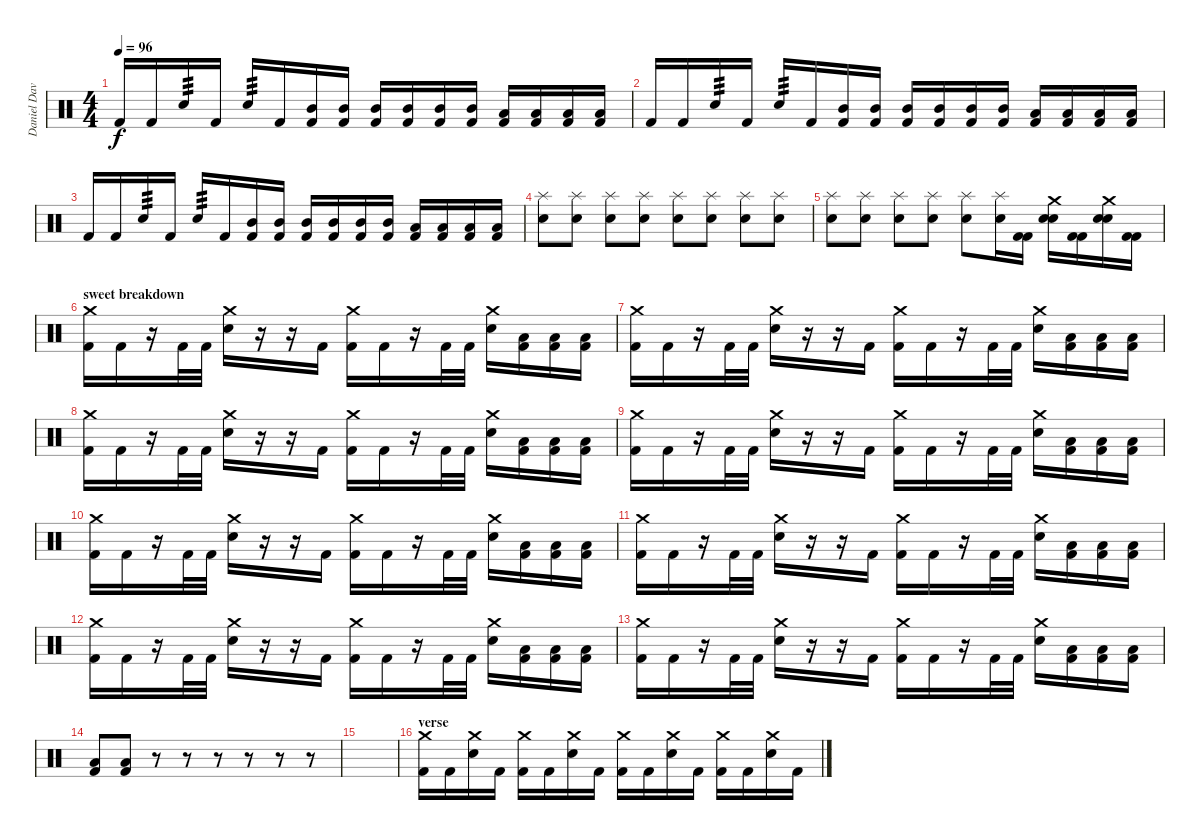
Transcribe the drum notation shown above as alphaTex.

\track ("Daniel Davison" "Daniel Dav") {instrument percussion}
\staff {score}
\articulation defaults
\ts (4 4)
\tempo 96
\clef neutral
\ks c "Kick (hit) 2".16{dy f} "Kick (hit) 2".16 "Electric Snare (hit)".16{tp 3} "Kick (hit) 2".16 "Electric Snare (hit)".16{tp 3} "Kick (hit) 2".16
("Mid Tom (hit)" "Kick (hit) 2").16 ("Mid Tom (hit)" "Kick (hit) 2").16 ("Mid Tom (hit)" "Kick (hit) 2").16 ("Mid Tom (hit)" "Kick (hit) 2").16 ("Mid Tom (hit)" "Kick (hit) 2").16 ("Mid Tom (hit)" "Kick (hit) 2").16 ("Low Tom (hit)" "Kick (hit) 2").16 ("Low Tom (hit)" "Kick (hit) 2").16 ("Low Tom (hit)" "Kick (hit) 2").16 ("Low Tom (hit)" "Kick (hit) 2").16 |
"Kick (hit) 2".16 "Kick (hit) 2".16 "Electric Snare (hit)".16{tp 3} "Kick (hit) 2".16 "Electric Snare (hit)".16{tp 3} "Kick (hit) 2".16 ("Mid Tom (hit)" "Kick (hit) 2").16 ("Mid Tom (hit)" "Kick (hit) 2").16 ("Mid Tom (hit)" "Kick (hit) 2").16 ("Mid Tom (hit)" "Kick (hit) 2").16 ("Mid Tom (hit)" "Kick (hit) 2").16 ("Mid Tom (hit)" "Kick (hit) 2").16 ("Low Tom (hit)" "Kick (hit) 2").16 ("Low Tom (hit)" "Kick (hit) 2").16 ("Low Tom (hit)" "Kick (hit) 2").16 ("Low Tom (hit)" "Kick (hit) 2").16 |
"Kick (hit) 2".16 "Kick (hit) 2".16 "Electric Snare (hit)".16{tp 3} "Kick (hit) 2".16 "Electric Snare (hit)".16{tp 3} "Kick (hit) 2".16 ("Mid Tom (hit)" "Kick (hit) 2").16 ("Mid Tom (hit)" "Kick (hit) 2").16 ("Mid Tom (hit)" "Kick (hit) 2").16 ("Mid Tom (hit)" "Kick (hit) 2").16 ("Mid Tom (hit)" "Kick (hit) 2").16 ("Mid Tom (hit)" "Kick (hit) 2").16 ("Low Tom (hit)" "Kick (hit) 2").16 ("Low Tom (hit)" "Kick (hit) 2").16 ("Low Tom (hit)" "Kick (hit) 2").16 ("Low Tom (hit)" "Kick (hit) 2").16 |
("Splash (hit)" "Electric Snare (hit)").8 ("Splash (hit)" "Electric Snare (hit)").8 ("Splash (hit)" "Electric Snare (hit)").8 ("Splash (hit)" "Electric Snare (hit)").8 ("Splash (hit)" "Electric Snare (hit)").8 ("Splash (hit)" "Electric Snare (hit)").8 ("Splash (hit)" "Electric Snare (hit)").8 ("Splash (hit)" "Electric Snare (hit)").8 |
("Splash (hit)" "Electric Snare (hit)").8 ("Splash (hit)" "Electric Snare (hit)").8 ("Splash (hit)" "Electric Snare (hit)").8 ("Splash (hit)" "Electric Snare (hit)").8 ("Splash (hit)" "Electric Snare (hit)").8 ("Splash (hit)" "Electric Snare (hit)").16 ("Kick (hit) 2" "Kick (hit) 2").16 ("Crash medium (hit)" "Electric Snare (hit)" "Electric Snare (hit)").16 ("Kick (hit) 2" "Kick (hit) 2").16 ("Crash medium (hit)" "Electric Snare (hit)" "Electric Snare (hit)").16 ("Kick (hit) 2" "Kick (hit) 2").16 |
\section ("" "sweet breakdown")
("Crash medium (hit)" "Kick (hit) 2").16 "Kick (hit) 2".16 r.16 "Kick (hit) 2".32 "Kick (hit) 2".32 ("Crash medium (hit)" "Electric Snare (hit)").16 r.16 r.16 "Kick (hit) 2".16 ("Crash medium (hit)" "Kick (hit) 2").16 "Kick (hit) 2".16 r.16 "Kick (hit) 2".32 "Kick (hit) 2".32 ("Crash medium (hit)" "Electric Snare (hit)").16 ("Low Tom (hit)" "Kick (hit) 2").16 ("Low Tom (hit)" "Kick (hit) 2").16 ("Low Tom (hit)" "Kick (hit) 2").16 |
("Crash medium (hit)" "Kick (hit) 2").16 "Kick (hit) 2".16 r.16 "Kick (hit) 2".32 "Kick (hit) 2".32 ("Crash medium (hit)" "Electric Snare (hit)").16 r.16 r.16 "Kick (hit) 2".16 ("Crash medium (hit)" "Kick (hit) 2").16 "Kick (hit) 2".16 r.16 "Kick (hit) 2".32 "Kick (hit) 2".32 ("Crash medium (hit)" "Electric Snare (hit)").16 ("Low Tom (hit)" "Kick (hit) 2").16 ("Low Tom (hit)" "Kick (hit) 2").16 ("Low Tom (hit)" "Kick (hit) 2").16 |
("Crash medium (hit)" "Kick (hit) 2").16 "Kick (hit) 2".16 r.16 "Kick (hit) 2".32 "Kick (hit) 2".32 ("Crash medium (hit)" "Electric Snare (hit)").16 r.16 r.16 "Kick (hit) 2".16 ("Crash medium (hit)" "Kick (hit) 2").16 "Kick (hit) 2".16 r.16 "Kick (hit) 2".32 "Kick (hit) 2".32 ("Crash medium (hit)" "Electric Snare (hit)").16 ("Low Tom (hit)" "Kick (hit) 2").16 ("Low Tom (hit)" "Kick (hit) 2").16 ("Low Tom (hit)" "Kick (hit) 2").16 |
("Crash medium (hit)" "Kick (hit) 2").16 "Kick (hit) 2".16 r.16 "Kick (hit) 2".32 "Kick (hit) 2".32 ("Crash medium (hit)" "Electric Snare (hit)").16 r.16 r.16 "Kick (hit) 2".16 ("Crash medium (hit)" "Kick (hit) 2").16 "Kick (hit) 2".16 r.16 "Kick (hit) 2".32 "Kick (hit) 2".32 ("Crash medium (hit)" "Electric Snare (hit)").16 ("Low Tom (hit)" "Kick (hit) 2").16 ("Low Tom (hit)" "Kick (hit) 2").16 ("Low Tom (hit)" "Kick (hit) 2").16 |
("Crash medium (hit)" "Kick (hit) 2").16 "Kick (hit) 2".16 r.16 "Kick (hit) 2".32 "Kick (hit) 2".32 ("Crash medium (hit)" "Electric Snare (hit)").16 r.16 r.16 "Kick (hit) 2".16 ("Crash medium (hit)" "Kick (hit) 2").16 "Kick (hit) 2".16 r.16 "Kick (hit) 2".32 "Kick (hit) 2".32 ("Crash medium (hit)" "Electric Snare (hit)").16 ("Low Tom (hit)" "Kick (hit) 2").16 ("Low Tom (hit)" "Kick (hit) 2").16 ("Low Tom (hit)" "Kick (hit) 2").16 |
("Crash medium (hit)" "Kick (hit) 2").16 "Kick (hit) 2".16 r.16 "Kick (hit) 2".32 "Kick (hit) 2".32 ("Crash medium (hit)" "Electric Snare (hit)").16 r.16 r.16 "Kick (hit) 2".16 ("Crash medium (hit)" "Kick (hit) 2").16 "Kick (hit) 2".16 r.16 "Kick (hit) 2".32 "Kick (hit) 2".32 ("Crash medium (hit)" "Electric Snare (hit)").16 ("Low Tom (hit)" "Kick (hit) 2").16 ("Low Tom (hit)" "Kick (hit) 2").16 ("Low Tom (hit)" "Kick (hit) 2").16 |
("Crash medium (hit)" "Kick (hit) 2").16 "Kick (hit) 2".16 r.16 "Kick (hit) 2".32 "Kick (hit) 2".32 ("Crash medium (hit)" "Electric Snare (hit)").16 r.16 r.16 "Kick (hit) 2".16 ("Crash medium (hit)" "Kick (hit) 2").16 "Kick (hit) 2".16 r.16 "Kick (hit) 2".32 "Kick (hit) 2".32 ("Crash medium (hit)" "Electric Snare (hit)").16 ("Low Tom (hit)" "Kick (hit) 2").16 ("Low Tom (hit)" "Kick (hit) 2").16 ("Low Tom (hit)" "Kick (hit) 2").16 |
("Crash medium (hit)" "Kick (hit) 2").16 "Kick (hit) 2".16 r.16 "Kick (hit) 2".32 "Kick (hit) 2".32 ("Crash medium (hit)" "Electric Snare (hit)").16 r.16 r.16 "Kick (hit) 2".16 ("Crash medium (hit)" "Kick (hit) 2").16 "Kick (hit) 2".16 r.16 "Kick (hit) 2".32 "Kick (hit) 2".32 ("Crash medium (hit)" "Electric Snare (hit)").16 ("Low Tom (hit)" "Kick (hit) 2").16 ("Low Tom (hit)" "Kick (hit) 2").16 ("Low Tom (hit)" "Kick (hit) 2").16 |
("Low Tom (hit)" "Kick (hit) 2").8 ("Low Tom (hit)" "Kick (hit) 2").8 r.8 r.8 r.8 r.8 r.8 r.8 |
|
\section ("" "verse")
("Crash medium (hit)" "Kick (hit) 2").16 "Kick (hit) 2".16 ("Crash medium (hit)" "Electric Snare (hit)").16 "Kick (hit) 2".16 ("Crash medium (hit)" "Kick (hit) 2").16 "Kick (hit) 2".16 ("Crash medium (hit)" "Electric Snare (hit)").16 "Kick (hit) 2".16 ("Crash medium (hit)" "Kick (hit) 2").16 "Kick (hit) 2".16 ("Crash medium (hit)" "Electric Snare (hit)").16 "Kick (hit) 2".16 ("Crash medium (hit)" "Kick (hit) 2").16 "Kick (hit) 2".16 ("Crash medium (hit)" "Electric Snare (hit)").16 "Kick (hit) 2".16
